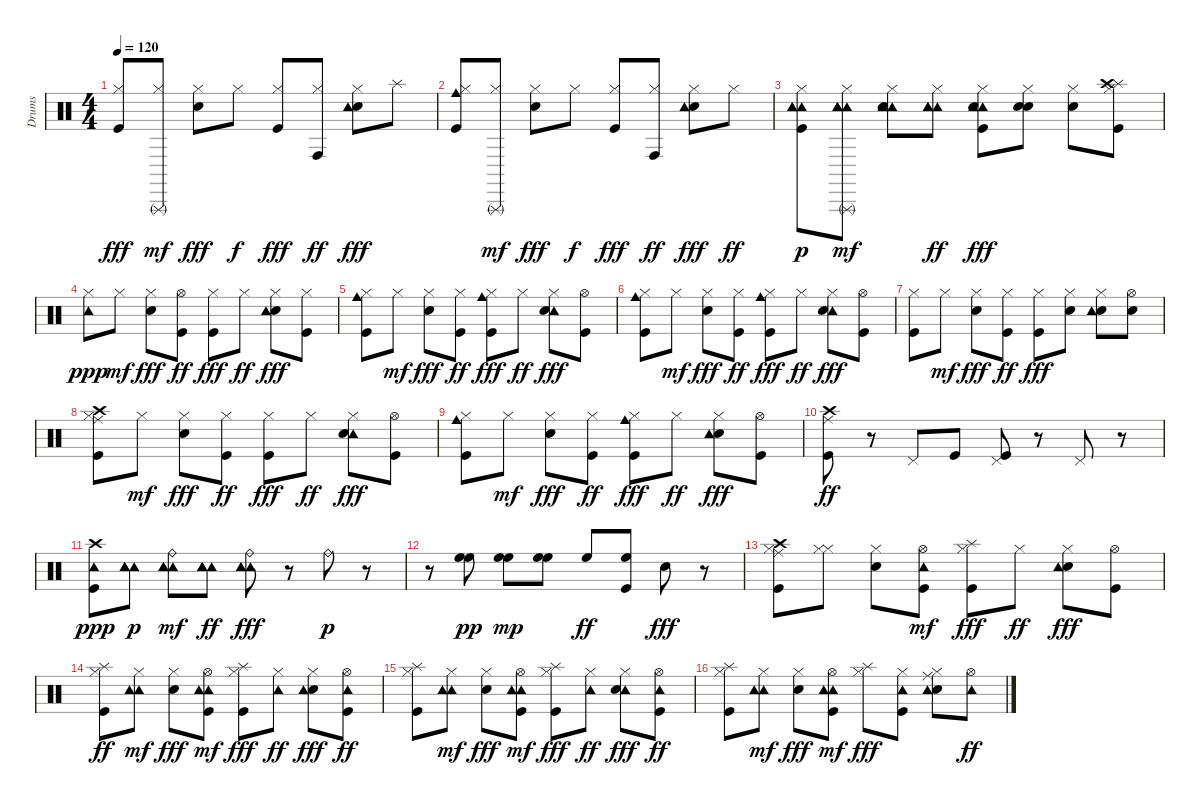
\track ("Drums " "Drums ") {instrument percussion}
\staff {score}
\articulation defaults
\ts (4 4)
\tempo 120
\clef neutral
\ks c
("Hi-Hat (closed)" "Kick (hit)").8{dy fff} ("Triangle (rnute)" "Hi-Hat (closed)").8{dy mf} ("Hi-Hat (closed)" "Electric Snare (hit)").8{dy fff} "Hi-Hat (closed)".8{dy f} ("Hi-Hat (closed)" "Kick (hit)").8{dy fff} ("Conga high (hit)" "Hi-Hat (closed)").8{dy ff} ("Electric Snare (hit)" "Hi-Hat (closed)" "Tambourine (hit)").8{dy fff} "Splash (hit)".8 |
("Hi-Hat (closed)" "Kick (hit)" "Cowbell medium (hit)").8 ("Triangle (rnute)" "Hi-Hat (closed)").8{dy mf} ("Hi-Hat (closed)" "Electric Snare (hit)").8{dy fff} "Hi-Hat (closed)".8{dy f} ("Hi-Hat (closed)" "Kick (hit)").8{dy fff} ("Conga high (hit)" "Hi-Hat (closed)").8{dy ff} ("Electric Snare (hit)" "Tambourine (hit)" "Hi-Hat (closed)").8{dy fff} "Hi-Hat (closed)".8{dy ff} |
("Tambourine (hit)" "Hi-Hat (closed)" "Kick (hit)" "Tambourine (hit)" "Tambourine (hit)").8{dy p} ("Tambourine (hit)" "Triangle (rnute)" "Hi-Hat (closed)" "Tambourine (hit)" "Tambourine (hit)" "Tambourine (hit)").8{dy mf} ("Tambourine (hit)" "Hi-Hat (closed)" "Electric Snare (hit)" "Tambourine (hit)" "Tambourine (hit)" "Tambourine (hit)").8 ("Tambourine (hit)" "Hi-Hat (closed)" "Tambourine (hit)" "Tambourine (hit)" "Tambourine (hit)").8{dy ff} ("Tambourine (hit)" "Hi-Hat (closed)" "Electric Snare (hit)" "Kick (hit)" "Tambourine (hit)").8{dy fff} ("Hi-Hat (closed)" "Electric Snare (hit)" "Electric Snare (hit)").8 ("Hi-Hat (closed)" "Electric Snare (hit)").8 ("Hi-Hat (closed)" "Kick (hit)" "Splash (hit)" "Crash high (hit)").8 |
("Hi-Hat (closed)" "Tambourine (hit)").8{dy ppp} "Hi-Hat (closed)".8{dy mf} ("Hi-Hat (closed)" "Electric Snare (hit)").8{dy fff} ("Hi-Hat (open)" "Kick (hit)").8{dy ff} ("Hi-Hat (closed)" "Kick (hit)").8{dy fff} "Hi-Hat (closed)".8{dy ff} ("Electric Snare (hit)" "Hi-Hat (closed)" "Tambourine (hit)").8{dy fff} ("Hi-Hat (closed)" "Kick (hit)").8 |
("Hi-Hat (closed)" "Kick (hit)" "Cowbell medium (hit)").8 "Hi-Hat (closed)".8{dy mf} ("Hi-Hat (closed)" "Electric Snare (hit)").8{dy fff} ("Hi-Hat (closed)" "Kick (hit)").8{dy ff} ("Kick (hit)" "Cowbell medium (hit)" "Hi-Hat (closed)").8{dy fff} "Hi-Hat (closed)".8{dy ff} ("Tambourine (hit)" "Hi-Hat (closed)" "Electric Snare (hit)").8{dy fff} ("Hi-Hat (open)" "Kick (hit)").8 |
("Hi-Hat (closed)" "Kick (hit)" "Cowbell medium (hit)").8 "Hi-Hat (closed)".8{dy mf} ("Hi-Hat (closed)" "Electric Snare (hit)").8{dy fff} ("Hi-Hat (closed)" "Kick (hit)").8{dy ff} ("Kick (hit)" "Cowbell medium (hit)" "Hi-Hat (closed)").8{dy fff} "Hi-Hat (closed)".8{dy ff} ("Tambourine (hit)" "Hi-Hat (closed)" "Electric Snare (hit)").8{dy fff} ("Hi-Hat (open)" "Kick (hit)").8 |
("Hi-Hat (closed)" "Kick (hit)").8 "Hi-Hat (closed)".8{dy mf} ("Hi-Hat (closed)" "Electric Snare (hit)").8{dy fff} ("Hi-Hat (closed)" "Kick (hit)").8{dy ff} ("Hi-Hat (closed)" "Kick (hit)").8{dy fff} ("Hi-Hat (closed)" "Electric Snare (hit)").8 ("Electric Snare (hit)" "Tambourine (hit)" "Hi-Hat (closed)").8 ("Hi-Hat (open)" "Electric Snare (hit)").8 |
("Crash high (hit)" "Hi-Hat (closed)" "Kick (hit)" "Ride (middle)").8 "Hi-Hat (closed)".8{dy mf} ("Hi-Hat (closed)" "Electric Snare (hit)").8{dy fff} ("Hi-Hat (closed)" "Kick (hit)").8{dy ff} ("Hi-Hat (closed)" "Kick (hit)").8{dy fff} "Hi-Hat (closed)".8{dy ff} ("Tambourine (hit)" "Hi-Hat (closed)" "Electric Snare (hit)").8{dy fff} ("Hi-Hat (open)" "Kick (hit)").8 |
("Hi-Hat (closed)" "Kick (hit)" "Cowbell medium (hit)").8 "Hi-Hat (closed)".8{dy mf} ("Hi-Hat (closed)" "Electric Snare (hit)").8{dy fff} ("Hi-Hat (closed)" "Kick (hit)").8{dy ff} ("Kick (hit)" "Cowbell medium (hit)" "Hi-Hat (closed)").8{dy fff} "Hi-Hat (closed)".8{dy ff} ("Electric Snare (hit)" "Tambourine (hit)" "Hi-Hat (closed)").8{dy fff} ("Hi-Hat (open)" "Kick (hit)").8 |
("Crash high (hit)" "Kick (hit)" "Ride (middle)").8{dy ff} r.8 "Pedal Hi-Hat (hit)".8 "Kick (hit)".8 ("Pedal Hi-Hat (hit)" "Kick (hit)").8 r.8 "Pedal Hi-Hat (hit)".8 r.8 |
("Kick (hit)" "Crash high (hit)" "Tambourine (hit)").8{dy ppp} ("Tambourine (hit)" "Tambourine (hit)" "Tambourine (hit)" "Tambourine (hit)").8{dy p} ("Tambourine (hit)" "Ride (bell)" "Tambourine (hit)" "Tambourine (hit)" "Tambourine (hit)").8{dy mf} ("Tambourine (hit)" "Tambourine (hit)" "Tambourine (hit)" "Tambourine (hit)").8{dy ff} ("Tambourine (hit)" "Tambourine (hit)" "Ride (bell)" "Tambourine (hit)").8{dy fff} r.8 "Ride (bell)".8{dy p} r.8 |
r.8 ("High Floor Tom (hit)" "High Floor Tom (hit)").8{dy pp} ("High Floor Tom (hit)" "High Floor Tom (hit)").8{dy mp} ("High Floor Tom (hit)" "High Floor Tom (hit)").8 "High Floor Tom (hit)".8{dy ff} ("High Floor Tom (hit)" "Kick (hit)").8 "Electric Snare (hit)".8{dy fff} r.8 |
("Crash high (hit)" "Hi-Hat (closed)" "Kick (hit)" "Ride (middle)").8 ("Hi-Hat (closed)" "Hi-Hat (closed)").8 ("Hi-Hat (closed)" "Electric Snare (hit)").8 ("Kick (hit)" "Tambourine (hit)" "Hi-Hat (open)").8{dy mf} ("Kick (hit)" "Splash (hit)" "Hi-Hat (closed)").8{dy fff} "Hi-Hat (closed)".8{dy ff} ("Electric Snare (hit)" "Tambourine (hit)" "Hi-Hat (closed)").8{dy fff} ("Hi-Hat (open)" "Kick (hit)").8 |
("Hi-Hat (closed)" "Kick (hit)" "Splash (hit)").8{dy ff} ("Tambourine (hit)" "Hi-Hat (closed)" "Tambourine (hit)").8{dy mf} ("Hi-Hat (closed)" "Electric Snare (hit)").8{dy fff} ("Tambourine (hit)" "Kick (hit)" "Tambourine (hit)" "Hi-Hat (open)").8{dy mf} ("Kick (hit)" "Splash (hit)" "Hi-Hat (closed)").8{dy fff} ("Tambourine (hit)" "Hi-Hat (closed)").8{dy ff} ("Electric Snare (hit)" "Tambourine (hit)" "Hi-Hat (closed)").8{dy fff} ("Kick (hit)" "Tambourine (hit)" "Hi-Hat (open)").8{dy ff} |
("Hi-Hat (closed)" "Kick (hit)" "Splash (hit)").8 ("Tambourine (hit)" "Hi-Hat (closed)" "Tambourine (hit)").8{dy mf} ("Hi-Hat (closed)" "Electric Snare (hit)").8{dy fff} ("Tambourine (hit)" "Kick (hit)" "Tambourine (hit)" "Hi-Hat (open)").8{dy mf} ("Kick (hit)" "Splash (hit)" "Hi-Hat (closed)").8{dy fff} ("Tambourine (hit)" "Hi-Hat (closed)").8{dy ff} ("Tambourine (hit)" "Hi-Hat (closed)" "Electric Snare (hit)").8{dy fff} ("Kick (hit)" "Tambourine (hit)" "Hi-Hat (open)").8{dy ff} |
("Hi-Hat (closed)" "Kick (hit)" "Splash (hit)").8 ("Tambourine (hit)" "Hi-Hat (closed)" "Tambourine (hit)").8{dy mf} ("Hi-Hat (closed)" "Electric Snare (hit)").8{dy fff} ("Tambourine (hit)" "Kick (hit)" "Tambourine (hit)" "Hi-Hat (open)").8{dy mf} ("Splash (hit)" "Hi-Hat (closed)").8{dy fff} ("Hi-Hat (closed)" "Tambourine (hit)" "Kick (hit)").8 ("Hi-Hat (closed)" "Electric Snare (hit)" "Tambourine (hit)" "Ride (middle)").8 ("Tambourine (hit)" "Hi-Hat (open)").8{dy ff}
